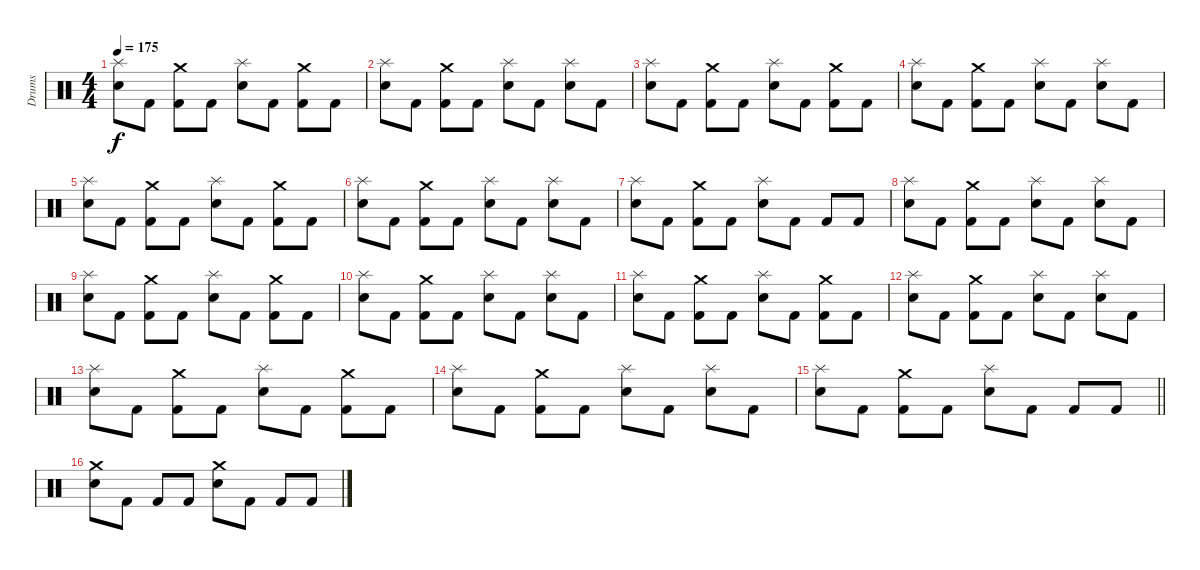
\track ("Drums" "Drums") {instrument percussion}
\staff {score}
\articulation defaults
\ts (4 4)
\tempo 175
\clef neutral
\ks c
("Splash (hit)" "Electric Snare (hit)").8{dy f} "Kick (hit) 2".8 ("Crash medium (hit)" "Kick (hit) 2").8 "Kick (hit) 2".8 ("Splash (hit)" "Electric Snare (hit)").8 "Kick (hit) 2".8 ("Crash medium (hit)" "Kick (hit) 2").8 "Kick (hit) 2".8 |
("Splash (hit)" "Electric Snare (hit)").8 "Kick (hit) 2".8 ("Crash medium (hit)" "Kick (hit) 2").8 "Kick (hit) 2".8 ("Splash (hit)" "Electric Snare (hit)").8 "Kick (hit) 2".8 ("Splash (hit)" "Electric Snare (hit)").8 "Kick (hit) 2".8 |
("Splash (hit)" "Electric Snare (hit)").8 "Kick (hit) 2".8 ("Crash medium (hit)" "Kick (hit) 2").8 "Kick (hit) 2".8 ("Splash (hit)" "Electric Snare (hit)").8 "Kick (hit) 2".8 ("Crash medium (hit)" "Kick (hit) 2").8 "Kick (hit) 2".8 |
("Splash (hit)" "Electric Snare (hit)").8 "Kick (hit) 2".8 ("Crash medium (hit)" "Kick (hit) 2").8 "Kick (hit) 2".8 ("Splash (hit)" "Electric Snare (hit)").8 "Kick (hit) 2".8 ("Splash (hit)" "Electric Snare (hit)").8 "Kick (hit) 2".8 |
("Splash (hit)" "Electric Snare (hit)").8 "Kick (hit) 2".8 ("Crash medium (hit)" "Kick (hit) 2").8 "Kick (hit) 2".8 ("Splash (hit)" "Electric Snare (hit)").8 "Kick (hit) 2".8 ("Crash medium (hit)" "Kick (hit) 2").8 "Kick (hit) 2".8 |
("Splash (hit)" "Electric Snare (hit)").8 "Kick (hit) 2".8 ("Crash medium (hit)" "Kick (hit) 2").8 "Kick (hit) 2".8 ("Splash (hit)" "Electric Snare (hit)").8 "Kick (hit) 2".8 ("Splash (hit)" "Electric Snare (hit)").8 "Kick (hit) 2".8 |
("Splash (hit)" "Electric Snare (hit)").8 "Kick (hit) 2".8 ("Crash medium (hit)" "Kick (hit) 2").8 "Kick (hit) 2".8 ("Splash (hit)" "Electric Snare (hit)").8 "Kick (hit) 2".8 "Kick (hit) 2".8 "Kick (hit) 2".8 |
("Splash (hit)" "Electric Snare (hit)").8 "Kick (hit) 2".8 ("Crash medium (hit)" "Kick (hit) 2").8 "Kick (hit) 2".8 ("Splash (hit)" "Electric Snare (hit)").8 "Kick (hit) 2".8 ("Splash (hit)" "Electric Snare (hit)").8 "Kick (hit) 2".8 |
("Splash (hit)" "Electric Snare (hit)").8 "Kick (hit) 2".8 ("Crash medium (hit)" "Kick (hit) 2").8 "Kick (hit) 2".8 ("Splash (hit)" "Electric Snare (hit)").8 "Kick (hit) 2".8 ("Crash medium (hit)" "Kick (hit) 2").8 "Kick (hit) 2".8 |
("Splash (hit)" "Electric Snare (hit)").8 "Kick (hit) 2".8 ("Crash medium (hit)" "Kick (hit) 2").8 "Kick (hit) 2".8 ("Splash (hit)" "Electric Snare (hit)").8 "Kick (hit) 2".8 ("Splash (hit)" "Electric Snare (hit)").8 "Kick (hit) 2".8 |
("Splash (hit)" "Electric Snare (hit)").8 "Kick (hit) 2".8 ("Crash medium (hit)" "Kick (hit) 2").8 "Kick (hit) 2".8 ("Splash (hit)" "Electric Snare (hit)").8 "Kick (hit) 2".8 ("Crash medium (hit)" "Kick (hit) 2").8 "Kick (hit) 2".8 |
("Splash (hit)" "Electric Snare (hit)").8 "Kick (hit) 2".8 ("Crash medium (hit)" "Kick (hit) 2").8 "Kick (hit) 2".8 ("Splash (hit)" "Electric Snare (hit)").8 "Kick (hit) 2".8 ("Splash (hit)" "Electric Snare (hit)").8 "Kick (hit) 2".8 |
("Splash (hit)" "Electric Snare (hit)").8 "Kick (hit) 2".8 ("Crash medium (hit)" "Kick (hit) 2").8 "Kick (hit) 2".8 ("Splash (hit)" "Electric Snare (hit)").8 "Kick (hit) 2".8 ("Crash medium (hit)" "Kick (hit) 2").8 "Kick (hit) 2".8 |
("Splash (hit)" "Electric Snare (hit)").8 "Kick (hit) 2".8 ("Crash medium (hit)" "Kick (hit) 2").8 "Kick (hit) 2".8 ("Splash (hit)" "Electric Snare (hit)").8 "Kick (hit) 2".8 ("Splash (hit)" "Electric Snare (hit)").8 "Kick (hit) 2".8 |
\barLineRight lightlight
("Splash (hit)" "Electric Snare (hit)").8 "Kick (hit) 2".8 ("Crash medium (hit)" "Kick (hit) 2").8 "Kick (hit) 2".8 ("Splash (hit)" "Electric Snare (hit)").8 "Kick (hit) 2".8 "Kick (hit) 2".8 "Kick (hit) 2".8 |
("Crash medium (hit)" "Electric Snare (hit)").8 "Kick (hit) 2".8 "Kick (hit) 2".8 "Kick (hit) 2".8 ("Crash medium (hit)" "Electric Snare (hit)").8 "Kick (hit) 2".8 "Kick (hit) 2".8 "Kick (hit) 2".8
